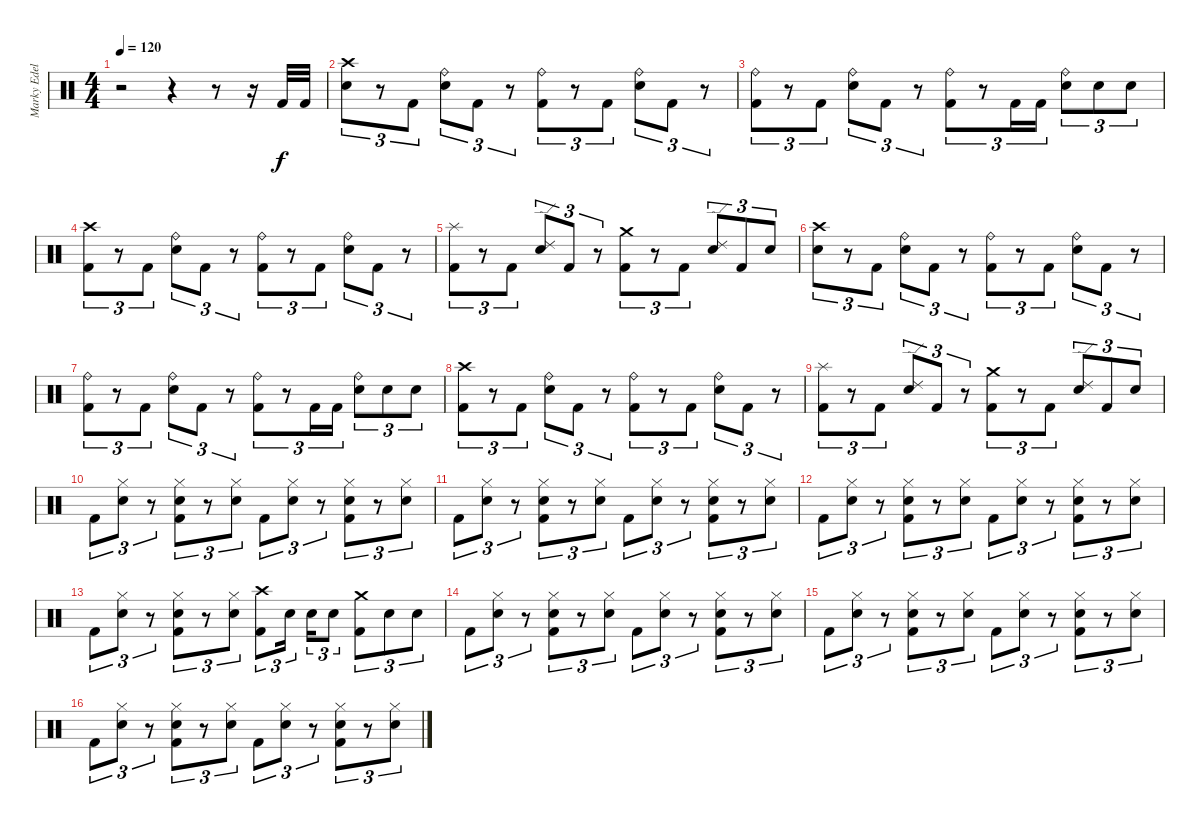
\track ("Marky Edelmann" "Marky Edel") {instrument percussion}
\staff {score}
\articulation defaults
\ts (4 4)
\tempo 120
\clef neutral
\ks c
r.2{dy f} r.4 r.8 r.16 "Kick (hit) 2".32 "Kick (hit) 2".32 |
("Crash high (hit)" "Snare (hit) 2").8{tu (3 2)} r.8{tu (3 2)} "Kick (hit) 2".8{tu (3 2)} ("Ride (bell)" "Snare (hit) 2").8{tu (3 2)} "Kick (hit) 2".8{tu (3 2)} r.8{tu (3 2)} ("Ride (bell)" "Kick (hit) 2").8{tu (3 2)} r.8{tu (3 2)} "Kick (hit) 2".8{tu (3 2)} ("Ride (bell)" "Snare (hit) 2").8{tu (3 2)} "Kick (hit) 2".8{tu (3 2)} r.8{tu (3 2)} |
("Ride (bell)" "Kick (hit) 2").8{tu (3 2)} r.8{tu (3 2)} "Kick (hit) 2".8{tu (3 2)} ("Ride (bell)" "Snare (hit) 2").8{tu (3 2)} "Kick (hit) 2".8{tu (3 2)} r.8{tu (3 2)} ("Ride (bell)" "Kick (hit) 2").8{tu (3 2)} r.8{tu (3 2)} "Kick (hit) 2".16{tu (3 2)} "Kick (hit) 2".16{tu (3 2)} ("Ride (bell)" "Snare (hit) 2").8{tu (3 2)} "Snare (hit) 2".8{tu (3 2)} "Snare (hit) 2".8{tu (3 2)} |
("Crash high (hit)" "Kick (hit) 2").8{tu (3 2)} r.8{tu (3 2)} "Kick (hit) 2".8{tu (3 2)} ("Ride (bell)" "Snare (hit) 2").8{tu (3 2)} "Kick (hit) 2".8{tu (3 2)} r.8{tu (3 2)} ("Ride (bell)" "Kick (hit) 2").8{tu (3 2)} r.8{tu (3 2)} "Kick (hit) 2".8{tu (3 2)} ("Ride (bell)" "Snare (hit) 2").8{tu (3 2)} "Kick (hit) 2".8{tu (3 2)} r.8{tu (3 2)} |
("Splash (hit)" "Kick (hit) 2").8{tu (3 2)} r.8{tu (3 2)} "Kick (hit) 2".8{tu (3 2)} ("Ride (edge) 2" "Snare (hit) 2").8{tu (3 2)} "Kick (hit) 2".8{tu (3 2)} r.8{tu (3 2)} ("Crash medium (hit)" "Kick (hit) 2").8{tu (3 2)} r.8{tu (3 2)} "Kick (hit) 2".8{tu (3 2)} ("Ride (edge) 2" "Snare (hit) 2").8{tu (3 2)} "Kick (hit) 2".8{tu (3 2)} "Snare (hit) 2".8{tu (3 2)} |
("Crash high (hit)" "Snare (hit) 2").8{tu (3 2)} r.8{tu (3 2)} "Kick (hit) 2".8{tu (3 2)} ("Ride (bell)" "Snare (hit) 2").8{tu (3 2)} "Kick (hit) 2".8{tu (3 2)} r.8{tu (3 2)} ("Ride (bell)" "Kick (hit) 2").8{tu (3 2)} r.8{tu (3 2)} "Kick (hit) 2".8{tu (3 2)} ("Ride (bell)" "Snare (hit) 2").8{tu (3 2)} "Kick (hit) 2".8{tu (3 2)} r.8{tu (3 2)} |
("Ride (bell)" "Kick (hit) 2").8{tu (3 2)} r.8{tu (3 2)} "Kick (hit) 2".8{tu (3 2)} ("Ride (bell)" "Snare (hit) 2").8{tu (3 2)} "Kick (hit) 2".8{tu (3 2)} r.8{tu (3 2)} ("Ride (bell)" "Kick (hit) 2").8{tu (3 2)} r.8{tu (3 2)} "Kick (hit) 2".16{tu (3 2)} "Kick (hit) 2".16{tu (3 2)} ("Ride (bell)" "Snare (hit) 2").8{tu (3 2)} "Snare (hit) 2".8{tu (3 2)} "Snare (hit) 2".8{tu (3 2)} |
("Crash high (hit)" "Kick (hit) 2").8{tu (3 2)} r.8{tu (3 2)} "Kick (hit) 2".8{tu (3 2)} ("Ride (bell)" "Snare (hit) 2").8{tu (3 2)} "Kick (hit) 2".8{tu (3 2)} r.8{tu (3 2)} ("Ride (bell)" "Kick (hit) 2").8{tu (3 2)} r.8{tu (3 2)} "Kick (hit) 2".8{tu (3 2)} ("Ride (bell)" "Snare (hit) 2").8{tu (3 2)} "Kick (hit) 2".8{tu (3 2)} r.8{tu (3 2)} |
("Splash (hit)" "Kick (hit) 2").8{tu (3 2)} r.8{tu (3 2)} "Kick (hit) 2".8{tu (3 2)} ("Ride (edge) 2" "Snare (hit) 2").8{tu (3 2)} "Kick (hit) 2".8{tu (3 2)} r.8{tu (3 2)} ("Crash medium (hit)" "Kick (hit) 2").8{tu (3 2)} r.8{tu (3 2)} "Kick (hit) 2".8{tu (3 2)} ("Ride (edge) 2" "Snare (hit) 2").8{tu (3 2)} "Kick (hit) 2".8{tu (3 2)} "Snare (hit) 2".8{tu (3 2)} |
"Kick (hit) 2".8{tu (3 2)} ("Hi-Hat (closed)" "Snare (hit) 2").8{tu (3 2)} r.8{tu (3 2)} ("Hi-Hat (closed)" "Snare (hit) 2" "Kick (hit) 2").8{tu (3 2)} r.8{tu (3 2)} ("Hi-Hat (closed)" "Snare (hit) 2").8{tu (3 2)} "Kick (hit) 2".8{tu (3 2)} ("Hi-Hat (closed)" "Snare (hit) 2").8{tu (3 2)} r.8{tu (3 2)} ("Hi-Hat (closed)" "Snare (hit) 2" "Kick (hit) 2").8{tu (3 2)} r.8{tu (3 2)} ("Hi-Hat (closed)" "Snare (hit) 2").8{tu (3 2)} |
"Kick (hit) 2".8{tu (3 2)} ("Hi-Hat (closed)" "Snare (hit) 2").8{tu (3 2)} r.8{tu (3 2)} ("Hi-Hat (closed)" "Snare (hit) 2" "Kick (hit) 2").8{tu (3 2)} r.8{tu (3 2)} ("Hi-Hat (closed)" "Snare (hit) 2").8{tu (3 2)} "Kick (hit) 2".8{tu (3 2)} ("Hi-Hat (closed)" "Snare (hit) 2").8{tu (3 2)} r.8{tu (3 2)} ("Hi-Hat (closed)" "Snare (hit) 2" "Kick (hit) 2").8{tu (3 2)} r.8{tu (3 2)} ("Hi-Hat (closed)" "Snare (hit) 2").8{tu (3 2)} |
"Kick (hit) 2".8{tu (3 2)} ("Hi-Hat (closed)" "Snare (hit) 2").8{tu (3 2)} r.8{tu (3 2)} ("Hi-Hat (closed)" "Snare (hit) 2" "Kick (hit) 2").8{tu (3 2)} r.8{tu (3 2)} ("Hi-Hat (closed)" "Snare (hit) 2").8{tu (3 2)} "Kick (hit) 2".8{tu (3 2)} ("Hi-Hat (closed)" "Snare (hit) 2").8{tu (3 2)} r.8{tu (3 2)} ("Hi-Hat (closed)" "Snare (hit) 2" "Kick (hit) 2").8{tu (3 2)} r.8{tu (3 2)} ("Hi-Hat (closed)" "Snare (hit) 2").8{tu (3 2)} |
"Kick (hit) 2".8{tu (3 2)} ("Hi-Hat (closed)" "Snare (hit) 2").8{tu (3 2)} r.8{tu (3 2)} ("Hi-Hat (closed)" "Snare (hit) 2" "Kick (hit) 2").8{tu (3 2)} r.8{tu (3 2)} ("Hi-Hat (closed)" "Snare (hit) 2").8{tu (3 2)} ("Crash high (hit)" "Kick (hit) 2").8{tu (3 2)} "Snare (hit) 2".16{tu (3 2) beam splitsecondary} "Snare (hit) 2".16{tu (3 2)} "Snare (hit) 2".8{tu (3 2)} ("Crash medium (hit)" "Kick (hit) 2").8{tu (3 2)} "Snare (hit) 2".8{tu (3 2)} "Snare (hit) 2".8{tu (3 2)} |
"Kick (hit) 2".8{tu (3 2)} ("Hi-Hat (closed)" "Snare (hit) 2").8{tu (3 2)} r.8{tu (3 2)} ("Hi-Hat (closed)" "Snare (hit) 2" "Kick (hit) 2").8{tu (3 2)} r.8{tu (3 2)} ("Hi-Hat (closed)" "Snare (hit) 2").8{tu (3 2)} "Kick (hit) 2".8{tu (3 2)} ("Hi-Hat (closed)" "Snare (hit) 2").8{tu (3 2)} r.8{tu (3 2)} ("Hi-Hat (closed)" "Snare (hit) 2" "Kick (hit) 2").8{tu (3 2)} r.8{tu (3 2)} ("Hi-Hat (closed)" "Snare (hit) 2").8{tu (3 2)} |
"Kick (hit) 2".8{tu (3 2)} ("Hi-Hat (closed)" "Snare (hit) 2").8{tu (3 2)} r.8{tu (3 2)} ("Hi-Hat (closed)" "Snare (hit) 2" "Kick (hit) 2").8{tu (3 2)} r.8{tu (3 2)} ("Hi-Hat (closed)" "Snare (hit) 2").8{tu (3 2)} "Kick (hit) 2".8{tu (3 2)} ("Hi-Hat (closed)" "Snare (hit) 2").8{tu (3 2)} r.8{tu (3 2)} ("Hi-Hat (closed)" "Snare (hit) 2" "Kick (hit) 2").8{tu (3 2)} r.8{tu (3 2)} ("Hi-Hat (closed)" "Snare (hit) 2").8{tu (3 2)} |
"Kick (hit) 2".8{tu (3 2)} ("Hi-Hat (closed)" "Snare (hit) 2").8{tu (3 2)} r.8{tu (3 2)} ("Hi-Hat (closed)" "Snare (hit) 2" "Kick (hit) 2").8{tu (3 2)} r.8{tu (3 2)} ("Hi-Hat (closed)" "Snare (hit) 2").8{tu (3 2)} "Kick (hit) 2".8{tu (3 2)} ("Hi-Hat (closed)" "Snare (hit) 2").8{tu (3 2)} r.8{tu (3 2)} ("Hi-Hat (closed)" "Snare (hit) 2" "Kick (hit) 2").8{tu (3 2)} r.8{tu (3 2)} ("Hi-Hat (closed)" "Snare (hit) 2").8{tu (3 2)}
